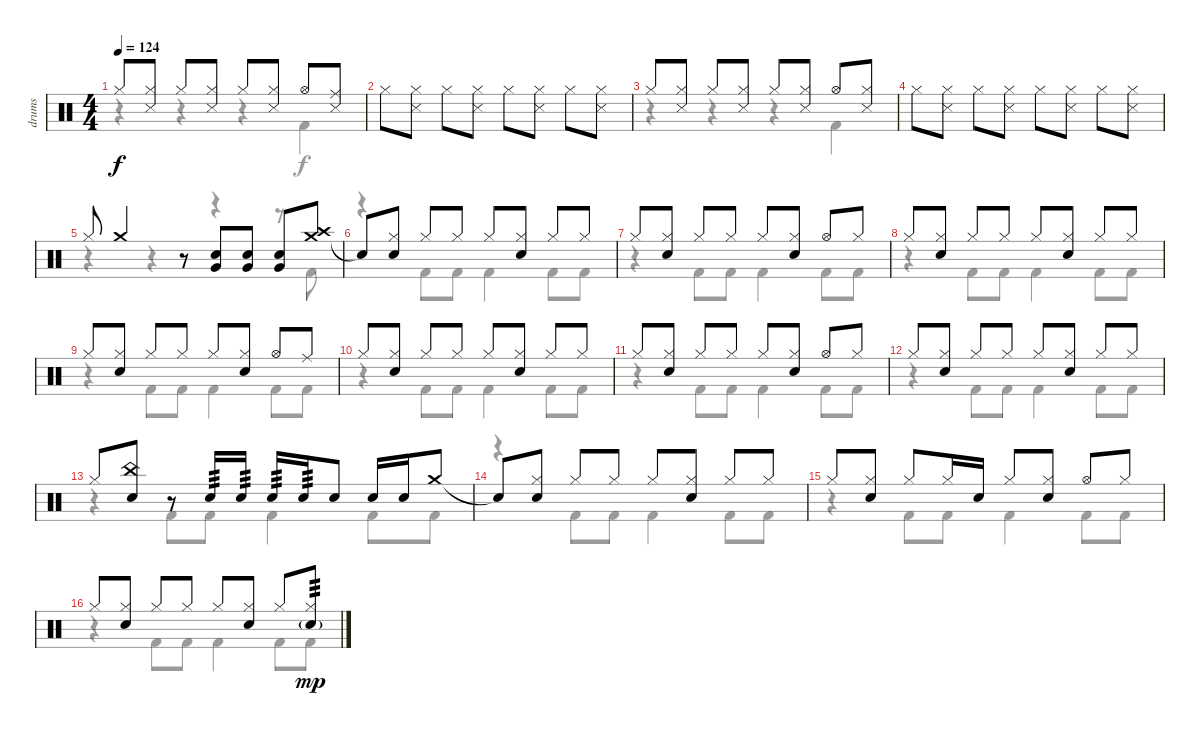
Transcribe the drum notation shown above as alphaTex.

\track ("drums" "drums") {instrument percussion}
\staff {score}
\articulation defaults
\voice
\ts (4 4)
\tempo 124
\clef neutral
\ks c "Hi-Hat (closed)".8{dy f}
("Hi-Hat (closed)" "Snare (side stick) 3").8 "Hi-Hat (closed)".8 ("Hi-Hat (closed)" "Snare (side stick) 3").8 "Hi-Hat (closed)".8 ("Hi-Hat (closed)" "Snare (side stick) 3").8 "Hi-Hat (open)".8 ("Ride (middle)" "Snare (side stick) 3").8 |
"Hi-Hat (closed)".8 ("Hi-Hat (closed)" "Snare (side stick) 3").8 "Hi-Hat (closed)".8 ("Hi-Hat (closed)" "Snare (side stick) 3").8 "Hi-Hat (closed)".8 ("Hi-Hat (closed)" "Snare (side stick) 3").8 "Hi-Hat (closed)".8 ("Hi-Hat (closed)" "Snare (side stick) 3").8 |
"Hi-Hat (closed)".8 ("Hi-Hat (closed)" "Snare (side stick) 3").8 "Hi-Hat (closed)".8 ("Hi-Hat (closed)" "Snare (side stick) 3").8 "Hi-Hat (closed)".8 ("Hi-Hat (closed)" "Snare (side stick) 3").8 "Hi-Hat (open)".8 ("Hi-Hat (closed)" "Snare (side stick) 3").8 |
"Hi-Hat (closed)".8 ("Hi-Hat (closed)" "Snare (side stick) 3").8 "Hi-Hat (closed)".8 ("Hi-Hat (closed)" "Snare (side stick) 3").8 "Hi-Hat (closed)".8 ("Hi-Hat (closed)" "Snare (side stick) 3").8 "Hi-Hat (closed)".8 ("Hi-Hat (closed)" "Snare (side stick) 3").8 |
"Hi-Hat (closed)".8 "Crash medium (hit)".4 r.8 ("Snare (hit) 2" "Very Low Tom (hit)").8 ("Snare (hit) 2" "Very Low Tom (hit)").8 ("Snare (hit) 2" "Very Low Tom (hit)").8 ("Crash medium (hit)" "Crash high (hit)").8 |
"Snare (hit)"{t}.8 ("Hi-Hat (closed)" "Snare (hit) 2").8 "Hi-Hat (closed)".8 "Hi-Hat (closed)".8 "Hi-Hat (closed)".8 ("Hi-Hat (closed)" "Snare (hit) 2").8 "Hi-Hat (closed)".8 "Hi-Hat (closed)".8 |
"Hi-Hat (closed)".8 ("Hi-Hat (closed)" "Snare (hit) 2").8 "Hi-Hat (closed)".8 "Hi-Hat (closed)".8 "Hi-Hat (closed)".8 ("Hi-Hat (closed)" "Snare (hit) 2").8 "Hi-Hat (open)".8 "Hi-Hat (closed)".8 |
"Hi-Hat (closed)".8 ("Hi-Hat (closed)" "Snare (hit) 2").8 "Hi-Hat (closed)".8 "Hi-Hat (closed)".8 "Hi-Hat (closed)".8 ("Hi-Hat (closed)" "Snare (hit) 2").8 "Hi-Hat (closed)".8 "Hi-Hat (closed)".8 |
"Hi-Hat (closed)".8 ("Hi-Hat (closed)" "Snare (hit) 2").8 "Hi-Hat (closed)".8 "Hi-Hat (closed)".8 "Hi-Hat (closed)".8 ("Hi-Hat (closed)" "Snare (hit) 2").8 "Hi-Hat (open)".8 "Ride (middle)".8 |
"Hi-Hat (closed)".8 ("Hi-Hat (closed)" "Snare (hit) 2").8 "Hi-Hat (closed)".8 "Hi-Hat (closed)".8 "Hi-Hat (closed)".8 ("Hi-Hat (closed)" "Snare (hit) 2").8 "Hi-Hat (closed)".8 "Hi-Hat (closed)".8 |
"Hi-Hat (closed)".8 ("Hi-Hat (closed)" "Snare (hit) 2").8 "Hi-Hat (closed)".8 "Hi-Hat (closed)".8 "Hi-Hat (closed)".8 ("Hi-Hat (closed)" "Snare (hit) 2").8 "Hi-Hat (open)".8 "Hi-Hat (closed)".8 |
"Hi-Hat (closed)".8 ("Hi-Hat (closed)" "Snare (hit) 2").8 "Hi-Hat (closed)".8 "Hi-Hat (closed)".8 "Hi-Hat (closed)".8 ("Hi-Hat (closed)" "Snare (hit) 2").8 "Hi-Hat (closed)".8 "Hi-Hat (closed)".8 |
"Hi-Hat (closed)".8 ("China (hit)" "Snare (hit) 2").8 r.8 "Snare (hit) 2".16{tp 3} "Snare (hit) 2".16{tp 3} "Snare (hit) 2".16{tp 3} "Snare (hit) 2".16{tp 3} "Snare (hit) 2".8 "Snare (hit) 2".16 "Snare (hit) 2".16 "Crash medium (hit)".8 |
"Snare (hit)"{t}.8 ("Hi-Hat (closed)" "Snare (hit) 2").8 "Hi-Hat (closed)".8 "Hi-Hat (closed)".8 "Hi-Hat (closed)".8 ("Hi-Hat (closed)" "Snare (hit) 2").8 "Hi-Hat (closed)".8 "Hi-Hat (closed)".8 |
"Hi-Hat (closed)".8 ("Hi-Hat (closed)" "Snare (hit) 2").8 "Hi-Hat (closed)".8 "Hi-Hat (closed)".16 "Snare (hit) 2".16 "Hi-Hat (closed)".8 ("Hi-Hat (closed)" "Snare (hit) 2").8 "Hi-Hat (open)".8 "Hi-Hat (closed)".8 |
"Hi-Hat (closed)".8 ("Hi-Hat (closed)" "Snare (hit) 2").8 "Hi-Hat (closed)".8 "Hi-Hat (closed)".8 "Hi-Hat (closed)".8 ("Hi-Hat (closed)" "Snare (hit) 2").8 "Hi-Hat (closed)".8 ("Hi-Hat (closed)" "Snare (hit) 2"{g}).8{tp 3 dy mp}
\voice
\clef neutral
\ottava regular
\simile none
\ks c
r.4{dy f} r.4 r.4 "Kick (hit) 2".4 |
|
r.4 r.4 r.4 "Kick (hit) 2".4 |
|
r.4 r.4 r.4 r.8 "Kick (hit) 2".8 |
r.4 "Kick (hit) 2".8 "Kick (hit) 2".8 "Kick (hit) 2".4 "Kick (hit) 2".8 "Kick (hit) 2".8 |
r.4 "Kick (hit) 2".8 "Kick (hit) 2".8 "Kick (hit) 2".4 "Kick (hit) 2".8 "Kick (hit) 2".8 |
r.4 "Kick (hit) 2".8 "Kick (hit) 2".8 "Kick (hit) 2".4 "Kick (hit) 2".8 "Kick (hit) 2".8 |
r.4 "Kick (hit) 2".8 "Kick (hit) 2".8 "Kick (hit) 2".4 "Kick (hit) 2".8 "Kick (hit) 2".8 |
r.4 "Kick (hit) 2".8 "Kick (hit) 2".8 "Kick (hit) 2".4 "Kick (hit) 2".8 "Kick (hit) 2".8 |
r.4 "Kick (hit) 2".8 "Kick (hit) 2".8 "Kick (hit) 2".4 "Kick (hit) 2".8 "Kick (hit) 2".8 |
r.4 "Kick (hit) 2".8 "Kick (hit) 2".8 "Kick (hit) 2".4 "Kick (hit) 2".8 "Kick (hit) 2".8 |
r.4 "Kick (hit) 2".8 "Kick (hit) 2".8 "Kick (hit) 2".4 "Kick (hit) 2".8 "Kick (hit) 2".8 |
r.4 "Kick (hit) 2".8 "Kick (hit) 2".8 "Kick (hit) 2".4 "Kick (hit) 2".8 "Kick (hit) 2".8 |
r.4 "Kick (hit) 2".8 "Kick (hit) 2".8 "Kick (hit) 2".4 "Kick (hit) 2".8 "Kick (hit) 2".8 |
r.4 "Kick (hit) 2".8 "Kick (hit) 2".8 "Kick (hit) 2".4 "Kick (hit) 2".8 "Kick (hit) 2".8
